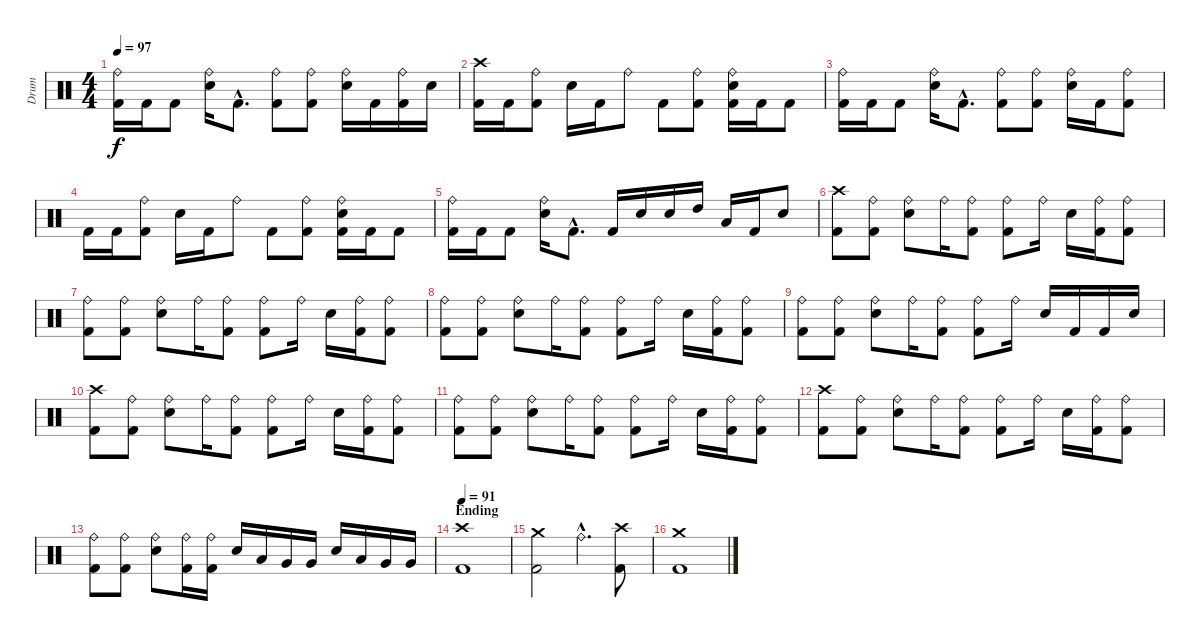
\track ("Drum" "Drum") {instrument percussion}
\staff {score}
\articulation defaults
\ts (4 4)
\tempo 97
\clef neutral
\ks c
("Ride (bell)" "Kick (hit) 2").16{dy f} "Kick (hit) 2".16 "Kick (hit) 2".8 ("Ride (bell)" "Snare (hit) 2").16 "Kick (hit) 2"{hac}.8{d} ("Ride (bell)" "Kick (hit) 2").8 ("Ride (bell)" "Kick (hit) 2").8 ("Ride (bell)" "Snare (hit) 2").16 "Kick (hit) 2".16 ("Ride (bell)" "Kick (hit) 2").16 "Snare (hit) 2".16 |
("Crash high (hit)" "Kick (hit) 2").16 "Kick (hit) 2".16 ("Ride (bell)" "Kick (hit) 2").8 "Snare (hit) 2".16 "Kick (hit) 2".16 "Ride (bell)".8 "Kick (hit) 2".8 ("Ride (bell)" "Kick (hit) 2").8 ("Ride (bell)" "Snare (hit) 2" "Kick (hit) 2").16 "Kick (hit) 2".16 "Kick (hit) 2".8 |
("Ride (bell)" "Kick (hit) 2").16 "Kick (hit) 2".16 "Kick (hit) 2".8 ("Ride (bell)" "Snare (hit) 2").16 "Kick (hit) 2"{hac}.8{d} ("Ride (bell)" "Kick (hit) 2").8 ("Ride (bell)" "Kick (hit) 2").8 ("Ride (bell)" "Snare (hit) 2").16 "Kick (hit) 2".16 ("Ride (bell)" "Kick (hit) 2").8 |
"Kick (hit) 2".16 "Kick (hit) 2".16 ("Ride (bell)" "Kick (hit) 2").8 "Snare (hit) 2".16 "Kick (hit) 2".16 "Ride (bell)".8 "Kick (hit) 2".8 ("Ride (bell)" "Kick (hit) 2").8 ("Ride (bell)" "Snare (hit) 2" "Kick (hit) 2").16 "Kick (hit) 2".16 "Kick (hit) 2".8 |
("Ride (bell)" "Kick (hit) 2").16 "Kick (hit) 2".16 "Kick (hit) 2".8 ("Ride (bell)" "Snare (hit) 2").16 "Kick (hit) 2"{hac}.8{d} "Kick (hit) 2".16 "Snare (hit) 2".16 "Snare (hit) 2".16 "High Tom (hit)".16 "Low Tom (hit)".16 "Kick (hit) 2".16 "Snare (hit) 2".8 |
("Crash high (hit)" "Kick (hit) 2").8 ("Ride (bell)" "Kick (hit) 2").8 ("Ride (bell)" "Snare (hit) 2").8 "Ride (bell)".16 ("Ride (bell)" "Kick (hit) 2").8 ("Ride (bell)" "Kick (hit) 2").8 "Ride (bell)".16 "Snare (hit) 2".16 ("Ride (bell)" "Kick (hit) 2").16 ("Ride (bell)" "Kick (hit) 2").8 |
("Ride (bell)" "Kick (hit) 2").8 ("Ride (bell)" "Kick (hit) 2").8 ("Ride (bell)" "Snare (hit) 2").8 "Ride (bell)".16 ("Ride (bell)" "Kick (hit) 2").8 ("Ride (bell)" "Kick (hit) 2").8 "Ride (bell)".16 "Snare (hit) 2".16 ("Ride (bell)" "Kick (hit) 2").16 ("Ride (bell)" "Kick (hit) 2").8 |
("Ride (bell)" "Kick (hit) 2").8 ("Ride (bell)" "Kick (hit) 2").8 ("Ride (bell)" "Snare (hit) 2").8 "Ride (bell)".16 ("Ride (bell)" "Kick (hit) 2").8 ("Ride (bell)" "Kick (hit) 2").8 "Ride (bell)".16 "Snare (hit) 2".16 ("Ride (bell)" "Kick (hit) 2").16 ("Ride (bell)" "Kick (hit) 2").8 |
("Ride (bell)" "Kick (hit) 2").8 ("Ride (bell)" "Kick (hit) 2").8 ("Ride (bell)" "Snare (hit) 2").8 "Ride (bell)".16 ("Ride (bell)" "Kick (hit) 2").8 ("Ride (bell)" "Kick (hit) 2").8 "Ride (bell)".16 "Snare (hit) 2".16 "Kick (hit) 2".16 "Kick (hit) 2".16 "Snare (hit) 2".16 |
("Crash high (hit)" "Kick (hit) 2").8 ("Ride (bell)" "Kick (hit) 2").8 ("Ride (bell)" "Snare (hit) 2").8 "Ride (bell)".16 ("Ride (bell)" "Kick (hit) 2").8 ("Ride (bell)" "Kick (hit) 2").8 "Ride (bell)".16 "Snare (hit) 2".16 ("Ride (bell)" "Kick (hit) 2").16 ("Ride (bell)" "Kick (hit) 2").8 |
("Ride (bell)" "Kick (hit) 2").8 ("Ride (bell)" "Kick (hit) 2").8 ("Ride (bell)" "Snare (hit) 2").8 "Ride (bell)".16 ("Ride (bell)" "Kick (hit) 2").8 ("Ride (bell)" "Kick (hit) 2").8 "Ride (bell)".16 "Snare (hit) 2".16 ("Ride (bell)" "Kick (hit) 2").16 ("Ride (bell)" "Kick (hit) 2").8 |
("Crash high (hit)" "Kick (hit) 2").8 ("Ride (bell)" "Kick (hit) 2").8 ("Ride (bell)" "Snare (hit) 2").8 "Ride (bell)".16 ("Ride (bell)" "Kick (hit) 2").8 ("Ride (bell)" "Kick (hit) 2").8 "Ride (bell)".16 "Snare (hit) 2".16 ("Ride (bell)" "Kick (hit) 2").16 ("Ride (bell)" "Kick (hit) 2").8 |
("Ride (bell)" "Kick (hit) 2").8 ("Ride (bell)" "Kick (hit) 2").8 ("Ride (bell)" "Snare (hit) 2").8 ("Ride (bell)" "Kick (hit) 2").16 ("Ride (bell)" "Kick (hit) 2").16 "Snare (hit) 2".16 "Low Tom (hit)".16 "Very Low Tom (hit)".16 "Very Low Tom (hit)".16 "Snare (hit) 2".16 "Low Tom (hit)".16 "Very Low Tom (hit)".16 "Very Low Tom (hit)".16 |
\section ("" "Ending")
\tempo 91
("Crash high (hit)" "Kick (hit) 2").1 |
("Crash medium (hit)" "Kick (hit) 2").2 "Ride (bell)"{hac}.4{d} ("Crash high (hit)" "Kick (hit) 2").8 |
("Crash medium (hit)" "Kick (hit) 2").1
